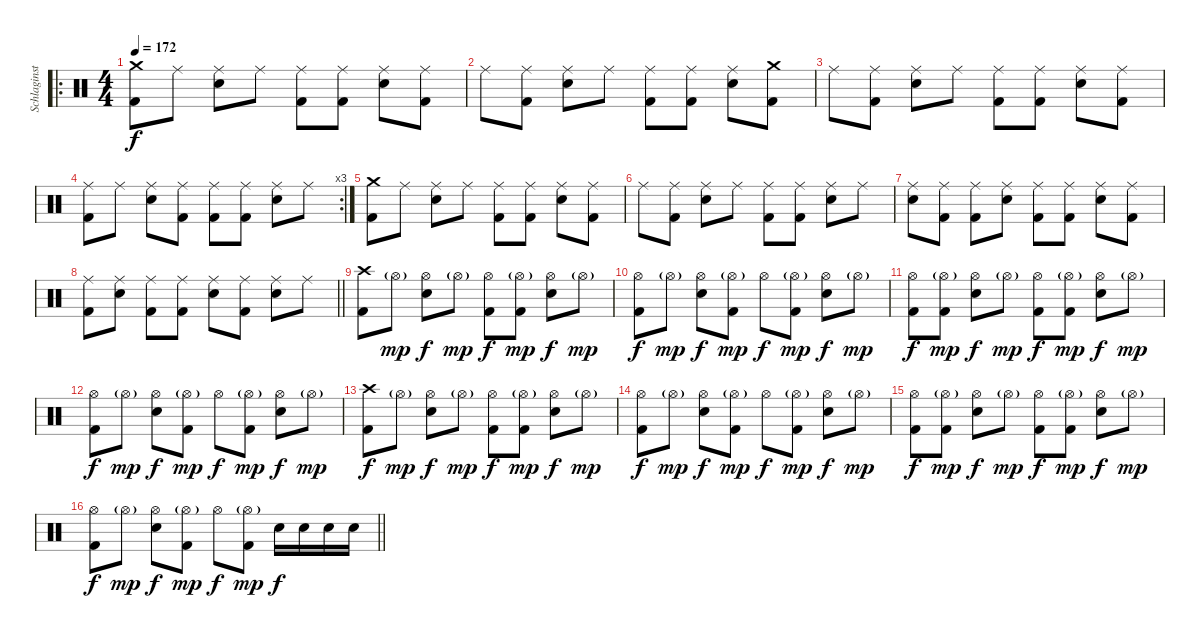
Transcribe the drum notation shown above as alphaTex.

\track ("Schlaginstrumente - Auswahl" "Schlaginst") {instrument percussion}
\staff {score}
\articulation defaults
\ro
\ts (4 4)
\tempo 172
\clef neutral
\ks c
("Crash medium (hit)" "Kick (hit) 2").8{dy f} "Ride (middle)".8 ("Ride (middle)" "Snare (hit) 2").8 "Ride (middle)".8 ("Ride (middle)" "Kick (hit) 2").8 ("Ride (middle)" "Kick (hit) 2").8 ("Ride (middle)" "Snare (hit) 2").8 ("Ride (middle)" "Kick (hit) 2").8 |
"Ride (middle)".8 ("Ride (middle)" "Kick (hit) 2").8 ("Ride (middle)" "Snare (hit) 2").8 "Ride (middle)".8 ("Ride (middle)" "Kick (hit) 2").8 ("Ride (middle)" "Kick (hit) 2").8 ("Ride (middle)" "Snare (hit) 2").8 ("Crash medium (hit)" "Kick (hit) 2").8 |
"Ride (middle)".8 ("Ride (middle)" "Kick (hit) 2").8 ("Ride (middle)" "Snare (hit) 2").8 "Ride (middle)".8 ("Ride (middle)" "Kick (hit) 2").8 ("Ride (middle)" "Kick (hit) 2").8 ("Ride (middle)" "Snare (hit) 2").8 ("Ride (middle)" "Kick (hit) 2").8 |
\rc 3
("Ride (middle)" "Kick (hit) 2").8 "Ride (middle)".8 ("Ride (middle)" "Snare (hit) 2").8 ("Ride (middle)" "Kick (hit) 2").8 ("Ride (middle)" "Kick (hit) 2").8 ("Ride (middle)" "Kick (hit) 2").8 ("Ride (middle)" "Snare (hit) 2").8 "Ride (middle)".8 |
("Crash medium (hit)" "Kick (hit) 2").8 "Ride (middle)".8 ("Ride (middle)" "Snare (hit) 2").8 "Ride (middle)".8 ("Ride (middle)" "Kick (hit) 2").8 ("Ride (middle)" "Kick (hit) 2").8 ("Ride (middle)" "Snare (hit) 2").8 ("Ride (middle)" "Kick (hit) 2").8 |
"Ride (middle)".8 ("Ride (middle)" "Kick (hit) 2").8 ("Ride (middle)" "Snare (hit) 2").8 "Ride (middle)".8 ("Ride (middle)" "Kick (hit) 2").8 ("Ride (middle)" "Kick (hit) 2").8 ("Ride (middle)" "Snare (hit) 2").8 "Ride (middle)".8 |
("Ride (middle)" "Snare (hit) 2").8 ("Ride (middle)" "Kick (hit) 2").8 ("Ride (middle)" "Kick (hit) 2").8 ("Ride (middle)" "Snare (hit) 2").8 ("Ride (middle)" "Kick (hit) 2").8 ("Ride (middle)" "Kick (hit) 2").8 ("Ride (middle)" "Snare (hit) 2").8 ("Ride (middle)" "Kick (hit) 2").8 |
\barLineRight lightlight
("Ride (middle)" "Kick (hit) 2").8 ("Ride (middle)" "Snare (hit) 2").8 ("Ride (middle)" "Kick (hit) 2").8 ("Ride (middle)" "Kick (hit) 2").8 ("Ride (middle)" "Snare (hit) 2").8 ("Ride (middle)" "Kick (hit) 2").8 ("Ride (middle)" "Snare (hit) 2").8 "Ride (middle)".8 |
("Crash high (hit)" "Kick (hit) 2").8 "Hi-Hat (open)"{g}.8{dy mp} ("Hi-Hat (open)" "Snare (hit) 2").8{dy f} "Hi-Hat (open)"{g}.8{dy mp} ("Hi-Hat (open)" "Kick (hit) 2").8{dy f} ("Hi-Hat (open)"{g} "Kick (hit) 2").8{dy mp} ("Hi-Hat (open)" "Snare (hit) 2").8{dy f} "Hi-Hat (open)"{g}.8{dy mp} |
("Hi-Hat (open)" "Kick (hit) 2").8{dy f} "Hi-Hat (open)"{g}.8{dy mp} ("Hi-Hat (open)" "Snare (hit) 2").8{dy f} ("Hi-Hat (open)"{g} "Kick (hit) 2").8{dy mp} "Hi-Hat (open)".8{dy f} ("Hi-Hat (open)"{g} "Kick (hit) 2").8{dy mp} ("Hi-Hat (open)" "Snare (hit) 2").8{dy f} "Hi-Hat (open)"{g}.8{dy mp} |
("Hi-Hat (open)" "Kick (hit) 2").8{dy f} ("Hi-Hat (open)"{g} "Kick (hit) 2").8{dy mp} ("Hi-Hat (open)" "Snare (hit) 2").8{dy f} "Hi-Hat (open)"{g}.8{dy mp} ("Hi-Hat (open)" "Kick (hit) 2").8{dy f} ("Hi-Hat (open)"{g} "Kick (hit) 2").8{dy mp} ("Hi-Hat (open)" "Snare (hit) 2").8{dy f} "Hi-Hat (open)"{g}.8{dy mp} |
("Hi-Hat (open)" "Kick (hit) 2").8{dy f} "Hi-Hat (open)"{g}.8{dy mp} ("Hi-Hat (open)" "Snare (hit) 2").8{dy f} ("Hi-Hat (open)"{g} "Kick (hit) 2").8{dy mp} "Hi-Hat (open)".8{dy f} ("Hi-Hat (open)"{g} "Kick (hit) 2").8{dy mp} ("Hi-Hat (open)" "Snare (hit) 2").8{dy f} "Hi-Hat (open)"{g}.8{dy mp} |
("Crash high (hit)" "Kick (hit) 2").8{dy f} "Hi-Hat (open)"{g}.8{dy mp} ("Hi-Hat (open)" "Snare (hit) 2").8{dy f} "Hi-Hat (open)"{g}.8{dy mp} ("Hi-Hat (open)" "Kick (hit) 2").8{dy f} ("Hi-Hat (open)"{g} "Kick (hit) 2").8{dy mp} ("Hi-Hat (open)" "Snare (hit) 2").8{dy f} "Hi-Hat (open)"{g}.8{dy mp} |
("Hi-Hat (open)" "Kick (hit) 2").8{dy f} "Hi-Hat (open)"{g}.8{dy mp} ("Hi-Hat (open)" "Snare (hit) 2").8{dy f} ("Hi-Hat (open)"{g} "Kick (hit) 2").8{dy mp} "Hi-Hat (open)".8{dy f} ("Hi-Hat (open)"{g} "Kick (hit) 2").8{dy mp} ("Hi-Hat (open)" "Snare (hit) 2").8{dy f} "Hi-Hat (open)"{g}.8{dy mp} |
("Hi-Hat (open)" "Kick (hit) 2").8{dy f} ("Hi-Hat (open)"{g} "Kick (hit) 2").8{dy mp} ("Hi-Hat (open)" "Snare (hit) 2").8{dy f} "Hi-Hat (open)"{g}.8{dy mp} ("Hi-Hat (open)" "Kick (hit) 2").8{dy f} ("Hi-Hat (open)"{g} "Kick (hit) 2").8{dy mp} ("Hi-Hat (open)" "Snare (hit) 2").8{dy f} "Hi-Hat (open)"{g}.8{dy mp} |
\barLineRight lightlight
("Hi-Hat (open)" "Kick (hit) 2").8{dy f} "Hi-Hat (open)"{g}.8{dy mp} ("Hi-Hat (open)" "Snare (hit) 2").8{dy f} ("Hi-Hat (open)"{g} "Kick (hit) 2").8{dy mp} "Hi-Hat (open)".8{dy f} ("Hi-Hat (open)"{g} "Kick (hit) 2").8{dy mp} "Snare (hit) 2".16{dy f} "Snare (hit) 2".16 "Snare (hit) 2".16 "Snare (hit) 2".16
